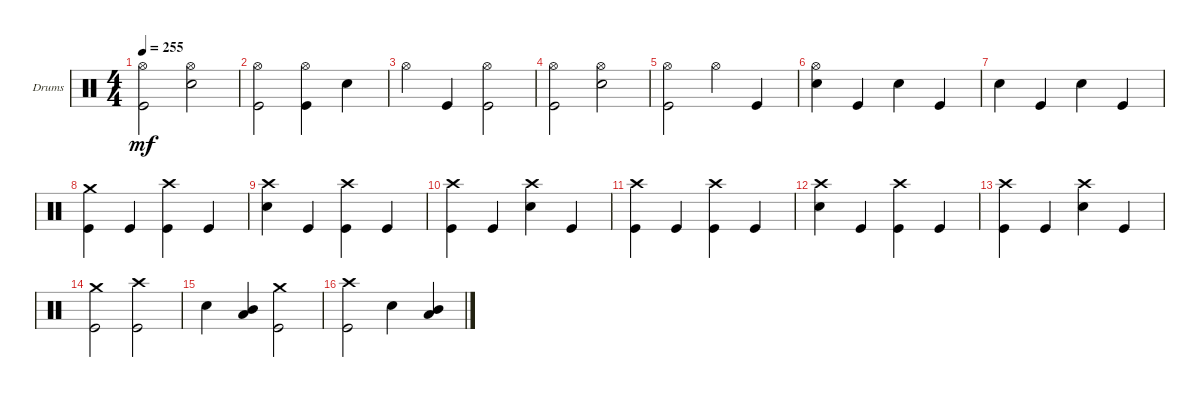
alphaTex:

\bracketExtendMode groupsimilarinstruments
\firstSystemTrackNameOrientation horizontal
\otherSystemsTrackNameOrientation horizontal
\track ("Drums" "Drums") {instrument percussion}
\staff {score}
\articulation defaults
\ts (4 4)
\tempo 255
\clef neutral
\ks c
("Kick (hit)" "Hi-Hat (open)").2{dy mf} ("Snare (hit) 2" "Hi-Hat (open)").2 |
("Kick (hit)" "Hi-Hat (open)").2 ("Kick (hit)" "Hi-Hat (open)").4 "Snare (hit) 2".4 |
"Hi-Hat (open)".4 "Kick (hit)".4 ("Kick (hit)" "Hi-Hat (open)").2 |
("Kick (hit)" "Hi-Hat (open)").2 ("Snare (hit) 2" "Hi-Hat (open)").2 |
("Kick (hit)" "Hi-Hat (open)").2 "Hi-Hat (open)".4 "Kick (hit)".4 |
("Snare (hit) 2" "Hi-Hat (open)").4 "Kick (hit)".4 "Snare (hit) 2".4 "Kick (hit)".4 |
"Snare (hit) 2".4 "Kick (hit)".4 "Snare (hit) 2".4 "Kick (hit)".4 |
("Kick (hit)" "Crash medium (hit)").4 "Kick (hit)".4 ("Kick (hit)" "Crash high (hit)").4 "Kick (hit)".4 |
("Snare (hit) 2" "Crash high (hit)").4 "Kick (hit)".4 ("Kick (hit)" "Crash high (hit)").4 "Kick (hit)".4 |
("Kick (hit)" "Crash high (hit)").4 "Kick (hit)".4 ("Snare (hit) 2" "Crash high (hit)").4 "Kick (hit)".4 |
("Kick (hit)" "Crash high (hit)").4 "Kick (hit)".4 ("Kick (hit)" "Crash high (hit)").4 "Kick (hit)".4 |
("Snare (hit) 2" "Crash high (hit)").4 "Kick (hit)".4 ("Kick (hit)" "Crash high (hit)").4 "Kick (hit)".4 |
("Kick (hit)" "Crash high (hit)").4 "Kick (hit)".4 ("Snare (hit) 2" "Crash high (hit)").4 "Kick (hit)".4 |
("Kick (hit)" "Crash medium (hit)").2 ("Kick (hit)" "Crash high (hit)").2 |
"Snare (hit) 2".4 ("Low Tom (hit)" "Mid Tom (hit)").4 ("Kick (hit)" "Crash medium (hit)").2 |
("Kick (hit)" "Crash high (hit)").2 "Snare (hit) 2".4 ("Low Tom (hit)" "Mid Tom (hit)").4
